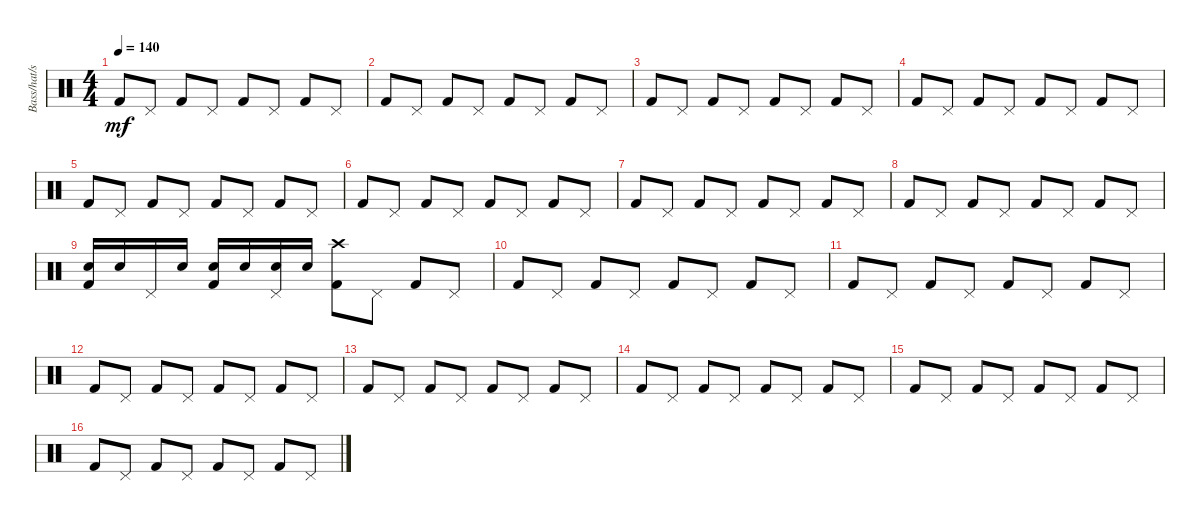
\track ("Bass/hat/snare/cymbal" "Bass/hat/s") {instrument percussion}
\staff {score}
\articulation defaults
\ts (4 4)
\tempo 140
\clef neutral
\ks c "Kick (hit) 2".8{dy mf} "Pedal Hi-Hat (hit)".8 "Kick (hit) 2".8 "Pedal Hi-Hat (hit)".8 "Kick (hit) 2".8 "Pedal Hi-Hat (hit)".8 "Kick (hit) 2".8 "Pedal Hi-Hat (hit)".8
|
"Kick (hit) 2".8 "Pedal Hi-Hat (hit)".8 "Kick (hit) 2".8 "Pedal Hi-Hat (hit)".8 "Kick (hit) 2".8 "Pedal Hi-Hat (hit)".8 "Kick (hit) 2".8 "Pedal Hi-Hat (hit)".8 |
"Kick (hit) 2".8 "Pedal Hi-Hat (hit)".8 "Kick (hit) 2".8 "Pedal Hi-Hat (hit)".8 "Kick (hit) 2".8 "Pedal Hi-Hat (hit)".8 "Kick (hit) 2".8 "Pedal Hi-Hat (hit)".8 |
"Kick (hit) 2".8 "Pedal Hi-Hat (hit)".8 "Kick (hit) 2".8 "Pedal Hi-Hat (hit)".8 "Kick (hit) 2".8 "Pedal Hi-Hat (hit)".8 "Kick (hit) 2".8 "Pedal Hi-Hat (hit)".8 |
"Kick (hit) 2".8 "Pedal Hi-Hat (hit)".8 "Kick (hit) 2".8 "Pedal Hi-Hat (hit)".8 "Kick (hit) 2".8 "Pedal Hi-Hat (hit)".8 "Kick (hit) 2".8 "Pedal Hi-Hat (hit)".8 |
"Kick (hit) 2".8 "Pedal Hi-Hat (hit)".8 "Kick (hit) 2".8 "Pedal Hi-Hat (hit)".8 "Kick (hit) 2".8 "Pedal Hi-Hat (hit)".8 "Kick (hit) 2".8 "Pedal Hi-Hat (hit)".8 |
"Kick (hit) 2".8 "Pedal Hi-Hat (hit)".8 "Kick (hit) 2".8 "Pedal Hi-Hat (hit)".8 "Kick (hit) 2".8 "Pedal Hi-Hat (hit)".8 "Kick (hit) 2".8 "Pedal Hi-Hat (hit)".8 |
"Kick (hit) 2".8 "Pedal Hi-Hat (hit)".8 "Kick (hit) 2".8 "Pedal Hi-Hat (hit)".8 "Kick (hit) 2".8 "Pedal Hi-Hat (hit)".8 "Kick (hit) 2".8 "Pedal Hi-Hat (hit)".8 |
("Kick (hit) 2" "Snare (hit) 2").16 "Snare (hit) 2".16 "Pedal Hi-Hat (hit)".16 "Snare (hit) 2".16 ("Kick (hit) 2" "Snare (hit) 2").16 "Snare (hit) 2".16 ("Snare (hit) 2" "Pedal Hi-Hat (hit)").16 "Snare (hit) 2".16 ("Kick (hit) 2" "Crash high (hit)").8 "Pedal Hi-Hat (hit)".8 "Kick (hit) 2".8 "Pedal Hi-Hat (hit)".8 |
"Kick (hit) 2".8 "Pedal Hi-Hat (hit)".8 "Kick (hit) 2".8 "Pedal Hi-Hat (hit)".8 "Kick (hit) 2".8 "Pedal Hi-Hat (hit)".8 "Kick (hit) 2".8 "Pedal Hi-Hat (hit)".8 |
"Kick (hit) 2".8 "Pedal Hi-Hat (hit)".8 "Kick (hit) 2".8 "Pedal Hi-Hat (hit)".8 "Kick (hit) 2".8 "Pedal Hi-Hat (hit)".8 "Kick (hit) 2".8 "Pedal Hi-Hat (hit)".8 |
"Kick (hit) 2".8 "Pedal Hi-Hat (hit)".8 "Kick (hit) 2".8 "Pedal Hi-Hat (hit)".8 "Kick (hit) 2".8 "Pedal Hi-Hat (hit)".8 "Kick (hit) 2".8 "Pedal Hi-Hat (hit)".8 |
"Kick (hit) 2".8 "Pedal Hi-Hat (hit)".8 "Kick (hit) 2".8 "Pedal Hi-Hat (hit)".8 "Kick (hit) 2".8 "Pedal Hi-Hat (hit)".8 "Kick (hit) 2".8 "Pedal Hi-Hat (hit)".8 |
"Kick (hit) 2".8 "Pedal Hi-Hat (hit)".8 "Kick (hit) 2".8 "Pedal Hi-Hat (hit)".8 "Kick (hit) 2".8 "Pedal Hi-Hat (hit)".8 "Kick (hit) 2".8 "Pedal Hi-Hat (hit)".8 |
"Kick (hit) 2".8 "Pedal Hi-Hat (hit)".8 "Kick (hit) 2".8 "Pedal Hi-Hat (hit)".8 "Kick (hit) 2".8 "Pedal Hi-Hat (hit)".8 "Kick (hit) 2".8 "Pedal Hi-Hat (hit)".8 |
"Kick (hit) 2".8 "Pedal Hi-Hat (hit)".8 "Kick (hit) 2".8 "Pedal Hi-Hat (hit)".8 "Kick (hit) 2".8 "Pedal Hi-Hat (hit)".8 "Kick (hit) 2".8 "Pedal Hi-Hat (hit)".8
